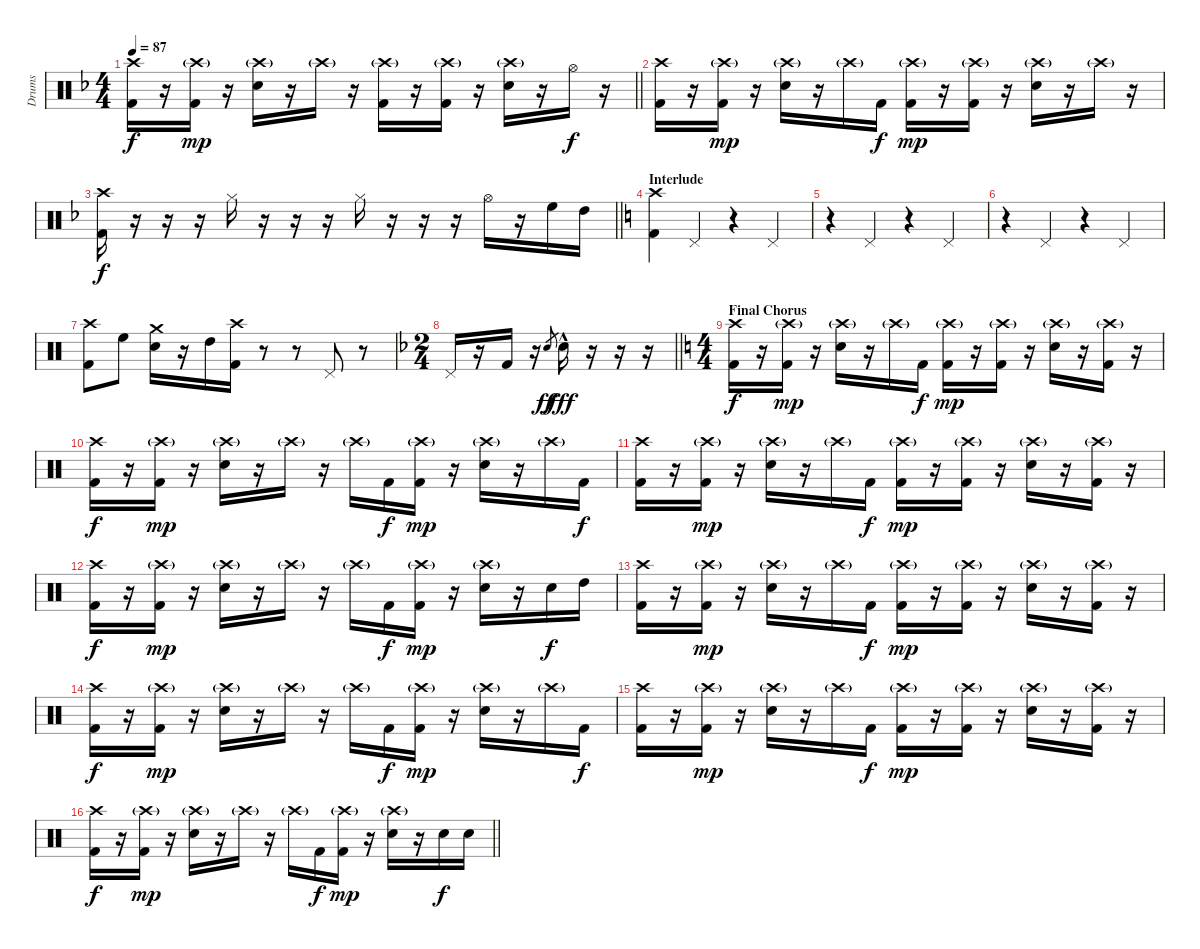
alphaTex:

\track ("Drums" "Drums") {instrument percussion}
\staff {score}
\articulation defaults
\ts (4 4)
\tempo 87
\clef neutral
\barLineRight lightlight
\ks f
("Crash high (hit)" "Kick (hit) 2").16{dy f} r.16 ("Crash high (hit)"{g} "Kick (hit) 2").16{dy mp} r.16 ("Crash high (hit)"{g} "Snare (hit) 2").16 r.16 "Crash high (hit)"{g}.16 r.16 ("Crash high (hit)"{g} "Kick (hit) 2").16 r.16 ("Crash high (hit)"{g} "Kick (hit) 2").16 r.16 ("Crash high (hit)"{g} "Snare (hit) 2").16 r.16 "Hi-Hat (open)".16{dy f} r.16 |
("Crash high (hit)" "Kick (hit) 2").16 r.16 ("Crash high (hit)"{g} "Kick (hit) 2").16{dy mp} r.16 ("Crash high (hit)"{g} "Snare (hit) 2").16 r.16 "Crash high (hit)"{g}.16 "Kick (hit) 2".16{dy f} ("Crash high (hit)"{g} "Kick (hit) 2").16{dy mp} r.16 ("Crash high (hit)"{g} "Kick (hit) 2").16 r.16 ("Crash high (hit)"{g} "Snare (hit) 2").16 r.16 "Crash high (hit)"{g}.16 r.16 |
\barLineRight lightlight
("Crash high (hit)" "Kick (hit) 2").16{dy f} r.16 r.16 r.16 "Hi-Hat (closed)".16 r.16 r.16 r.16 "Hi-Hat (closed)".16 r.16 r.16 r.16 "Hi-Hat (open)".16 r.16 "High Floor Tom (hit)".16 "High Tom (hit)".16 |
\section ("" "Interlude")
\ks c
("Crash high (hit)" "Kick (hit) 2").4 "Pedal Hi-Hat (hit)".4 r.4 "Pedal Hi-Hat (hit)".4 |
r.4 "Pedal Hi-Hat (hit)".4 r.4 "Pedal Hi-Hat (hit)".4 |
r.4 "Pedal Hi-Hat (hit)".4 r.4 "Pedal Hi-Hat (hit)".4 |
("Crash high (hit)" "Kick (hit) 2").8 "High Floor Tom (hit)".8 ("Crash medium (hit)" "Snare (hit) 2").16 r.16 "High Tom (hit)".16 ("Crash high (hit)" "Kick (hit) 2").16 r.8 r.8 "Pedal Hi-Hat (hit)".8 r.8 |
\ts (2 4)
\barLineRight lightlight
\ks f "Pedal Hi-Hat (hit)".16
r.16 "Kick (hit) 2".16 r.16 "Snare (hit) 2".8{gr dy ff} "Snare (hit) 2"{hac}.16{dy fff} r.16 r.16 r.16 |
\ts (4 4)
\section ("" "Final Chorus")
\ks c
("Crash high (hit)" "Kick (hit) 2").16{dy f} r.16 ("Crash high (hit)"{g} "Kick (hit) 2").16{dy mp} r.16 ("Crash high (hit)"{g} "Snare (hit) 2").16 r.16 "Crash high (hit)"{g}.16 "Kick (hit) 2".16{dy f} ("Crash high (hit)"{g} "Kick (hit) 2").16{dy mp} r.16 ("Crash high (hit)"{g} "Kick (hit) 2").16 r.16 ("Crash high (hit)"{g} "Snare (hit) 2").16 r.16 ("Crash high (hit)"{g} "Kick (hit) 2").16 r.16 |
("Crash high (hit)" "Kick (hit) 2").16{dy f} r.16 ("Crash high (hit)"{g} "Kick (hit) 2").16{dy mp} r.16 ("Crash high (hit)"{g} "Snare (hit) 2").16 r.16 "Crash high (hit)"{g}.16 r.16 "Crash high (hit)"{g}.16 "Kick (hit) 2".16{dy f} ("Crash high (hit)"{g} "Kick (hit) 2").16{dy mp} r.16 ("Crash high (hit)"{g} "Snare (hit) 2").16 r.16 "Crash high (hit)"{g}.16 "Kick (hit) 2".16{dy f} |
("Crash high (hit)" "Kick (hit) 2").16 r.16 ("Crash high (hit)"{g} "Kick (hit) 2").16{dy mp} r.16 ("Crash high (hit)"{g} "Snare (hit) 2").16 r.16 "Crash high (hit)"{g}.16 "Kick (hit) 2".16{dy f} ("Crash high (hit)"{g} "Kick (hit) 2").16{dy mp} r.16 ("Crash high (hit)"{g} "Kick (hit) 2").16 r.16 ("Crash high (hit)"{g} "Snare (hit) 2").16 r.16 ("Crash high (hit)"{g} "Kick (hit) 2").16 r.16 |
("Crash high (hit)" "Kick (hit) 2").16{dy f} r.16 ("Crash high (hit)"{g} "Kick (hit) 2").16{dy mp} r.16 ("Crash high (hit)"{g} "Snare (hit) 2").16 r.16 "Crash high (hit)"{g}.16 r.16 "Crash high (hit)"{g}.16 "Kick (hit) 2".16{dy f} ("Crash high (hit)"{g} "Kick (hit) 2").16{dy mp} r.16 ("Crash high (hit)"{g} "Snare (hit) 2").16 r.16 "Snare (hit) 2".16{dy f} "High Tom (hit)".16 |
("Crash high (hit)" "Kick (hit) 2").16 r.16 ("Crash high (hit)"{g} "Kick (hit) 2").16{dy mp} r.16 ("Crash high (hit)"{g} "Snare (hit) 2").16 r.16 "Crash high (hit)"{g}.16 "Kick (hit) 2".16{dy f} ("Crash high (hit)"{g} "Kick (hit) 2").16{dy mp} r.16 ("Crash high (hit)"{g} "Kick (hit) 2").16 r.16 ("Crash high (hit)"{g} "Snare (hit) 2").16 r.16 ("Crash high (hit)"{g} "Kick (hit) 2").16 r.16 |
("Crash high (hit)" "Kick (hit) 2").16{dy f} r.16 ("Crash high (hit)"{g} "Kick (hit) 2").16{dy mp} r.16 ("Crash high (hit)"{g} "Snare (hit) 2").16 r.16 "Crash high (hit)"{g}.16 r.16 "Crash high (hit)"{g}.16 "Kick (hit) 2".16{dy f} ("Crash high (hit)"{g} "Kick (hit) 2").16{dy mp} r.16 ("Crash high (hit)"{g} "Snare (hit) 2").16 r.16 "Crash high (hit)"{g}.16 "Kick (hit) 2".16{dy f} |
("Crash high (hit)" "Kick (hit) 2").16 r.16 ("Crash high (hit)"{g} "Kick (hit) 2").16{dy mp} r.16 ("Crash high (hit)"{g} "Snare (hit) 2").16 r.16 "Crash high (hit)"{g}.16 "Kick (hit) 2".16{dy f} ("Crash high (hit)"{g} "Kick (hit) 2").16{dy mp} r.16 ("Crash high (hit)"{g} "Kick (hit) 2").16 r.16 ("Crash high (hit)"{g} "Snare (hit) 2").16 r.16 ("Crash high (hit)"{g} "Kick (hit) 2").16 r.16 |
\barLineRight lightlight
("Crash high (hit)" "Kick (hit) 2").16{dy f} r.16 ("Crash high (hit)"{g} "Kick (hit) 2").16{dy mp} r.16 ("Crash high (hit)"{g} "Snare (hit) 2").16 r.16 "Crash high (hit)"{g}.16 r.16 "Crash high (hit)"{g}.16 "Kick (hit) 2".16{dy f} ("Crash high (hit)"{g} "Kick (hit) 2").16{dy mp} r.16 ("Crash high (hit)"{g} "Snare (hit) 2").16 r.16 "Snare (hit) 2".16{dy f} "Snare (hit) 2".16
